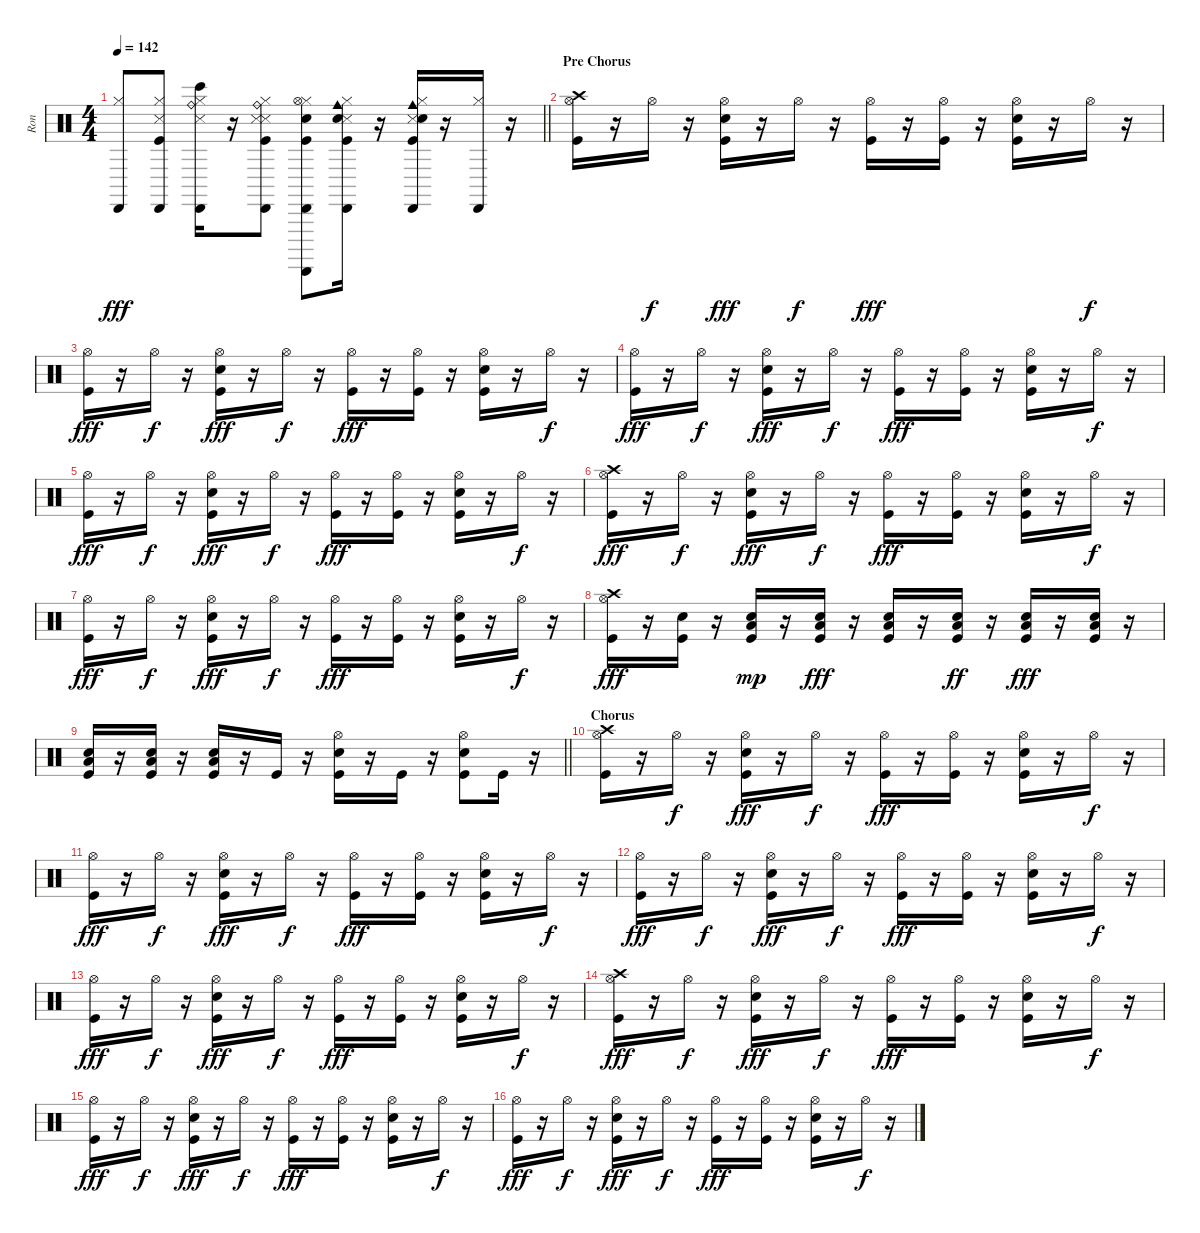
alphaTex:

\track ("Ron" "Ron") {instrument percussion}
\staff {score}
\articulation defaults
\ts (4 4)
\tempo 142
\clef neutral
\barLineRight lightlight
\ks c
("Hi-Hat (closed)" "Cabasa (hit)").8{dy fff} ("Hi-Hat (closed)" "Cabasa (hit)" "Kick (hit)" "Metronome (hit)").8 ("Hi-Hat (closed)" "Cabasa (hit)" "Bongo High (hit)" "Ride (bell)" "Snare (side stick) 3").16 r.16 ("Hi-Hat (closed)" "Cabasa (hit)" "Ride (bell)" "Snare (side stick) 3" "Kick (hit)" "Metronome (hit)").8 ("Guiro (scrap-return)" "Hi-Hat (closed)" "Cabasa (hit)" "Snare (hit) 2" "Kick (hit)" "Hi-Hat (open)").8 ("Hi-Hat (closed)" "Cabasa (hit)" "Cowbell medium (hit)" "Snare (side stick) 3" "Snare (hit) 2" "Kick (hit)").16 r.16 ("Hi-Hat (closed)" "Cabasa (hit)" "Cowbell medium (hit)" "Snare (side stick) 3" "Snare (hit) 2" "Kick (hit)").16 r.16 ("Hi-Hat (closed)" "Cabasa (hit)").16 r.16 |
\section ("" "Pre Chorus")
("Crash high (hit)" "Hi-Hat (open)" "Kick (hit)").16 r.16 "Hi-Hat (open)".16{dy f} r.16 ("Snare (hit) 2" "Kick (hit)" "Hi-Hat (open)").16{dy fff} r.16 "Hi-Hat (open)".16{dy f} r.16 ("Kick (hit)" "Hi-Hat (open)").16{dy fff} r.16 ("Kick (hit)" "Hi-Hat (open)").16 r.16 ("Kick (hit)" "Snare (hit) 2" "Hi-Hat (open)").16 r.16 "Hi-Hat (open)".16{dy f} r.16 |
("Kick (hit)" "Hi-Hat (open)").16{dy fff} r.16 "Hi-Hat (open)".16{dy f} r.16 ("Snare (hit) 2" "Kick (hit)" "Hi-Hat (open)").16{dy fff} r.16 "Hi-Hat (open)".16{dy f} r.16 ("Kick (hit)" "Hi-Hat (open)").16{dy fff} r.16 ("Kick (hit)" "Hi-Hat (open)").16 r.16 ("Kick (hit)" "Snare (hit) 2" "Hi-Hat (open)").16 r.16 "Hi-Hat (open)".16{dy f} r.16 |
("Kick (hit)" "Hi-Hat (open)").16{dy fff} r.16 "Hi-Hat (open)".16{dy f} r.16 ("Snare (hit) 2" "Kick (hit)" "Hi-Hat (open)").16{dy fff} r.16 "Hi-Hat (open)".16{dy f} r.16 ("Kick (hit)" "Hi-Hat (open)").16{dy fff} r.16 ("Kick (hit)" "Hi-Hat (open)").16 r.16 ("Kick (hit)" "Snare (hit) 2" "Hi-Hat (open)").16 r.16 "Hi-Hat (open)".16{dy f} r.16 |
("Kick (hit)" "Hi-Hat (open)").16{dy fff} r.16 "Hi-Hat (open)".16{dy f} r.16 ("Snare (hit) 2" "Kick (hit)" "Hi-Hat (open)").16{dy fff} r.16 "Hi-Hat (open)".16{dy f} r.16 ("Kick (hit)" "Hi-Hat (open)").16{dy fff} r.16 ("Kick (hit)" "Hi-Hat (open)").16 r.16 ("Kick (hit)" "Snare (hit) 2" "Hi-Hat (open)").16 r.16 "Hi-Hat (open)".16{dy f} r.16 |
("Crash high (hit)" "Hi-Hat (open)" "Kick (hit)").16{dy fff} r.16 "Hi-Hat (open)".16{dy f} r.16 ("Snare (hit) 2" "Kick (hit)" "Hi-Hat (open)").16{dy fff} r.16 "Hi-Hat (open)".16{dy f} r.16 ("Kick (hit)" "Hi-Hat (open)").16{dy fff} r.16 ("Kick (hit)" "Hi-Hat (open)").16 r.16 ("Kick (hit)" "Snare (hit) 2" "Hi-Hat (open)").16 r.16 "Hi-Hat (open)".16{dy f} r.16 |
("Kick (hit)" "Hi-Hat (open)").16{dy fff} r.16 "Hi-Hat (open)".16{dy f} r.16 ("Snare (hit) 2" "Kick (hit)" "Hi-Hat (open)").16{dy fff} r.16 "Hi-Hat (open)".16{dy f} r.16 ("Kick (hit)" "Hi-Hat (open)").16{dy fff} r.16 ("Kick (hit)" "Hi-Hat (open)").16 r.16 ("Kick (hit)" "Snare (hit) 2" "Hi-Hat (open)").16 r.16 "Hi-Hat (open)".16{dy f} r.16 |
("Hi-Hat (open)" "Crash high (hit)" "Kick (hit)").16{dy fff} r.16 ("Snare (hit) 2" "Kick (hit)").16 r.16 ("Snare (hit) 2" "Kick (hit)" "Low Floor Tom (hit)").16{dy mp} r.16 ("Snare (hit) 2" "Kick (hit)" "Low Floor Tom (hit)").16{dy fff} r.16 ("Snare (hit) 2" "Kick (hit)" "Low Floor Tom (hit)").16 r.16 ("Snare (hit) 2" "Kick (hit)" "Low Floor Tom (hit)").16{dy ff} r.16 ("Snare (hit) 2" "Kick (hit)" "Low Floor Tom (hit)").16{dy fff} r.16 ("Snare (hit) 2" "Kick (hit)" "Low Floor Tom (hit)").16 r.16 |
\barLineRight lightlight
("Snare (hit) 2" "Kick (hit)" "Low Floor Tom (hit)").16 r.16 ("Snare (hit) 2" "Kick (hit)" "Low Floor Tom (hit)").16 r.16 ("Snare (hit) 2" "Kick (hit)" "Low Floor Tom (hit)").16 r.16 "Kick (hit)".16 r.16 ("Snare (hit) 2" "Kick (hit)" "Hi-Hat (open)").16 r.16 "Kick (hit)".16 r.16 ("Snare (hit) 2" "Kick (hit)" "Hi-Hat (open)").8 "Kick (hit)".16 r.16 |
\section ("" "Chorus ")
("Kick (hit)" "Hi-Hat (open)" "Crash high (hit)").16 r.16 "Hi-Hat (open)".16{dy f} r.16 ("Snare (hit) 2" "Kick (hit)" "Hi-Hat (open)").16{dy fff} r.16 "Hi-Hat (open)".16{dy f} r.16 ("Kick (hit)" "Hi-Hat (open)").16{dy fff} r.16 ("Kick (hit)" "Hi-Hat (open)").16 r.16 ("Kick (hit)" "Snare (hit) 2" "Hi-Hat (open)").16 r.16 "Hi-Hat (open)".16{dy f} r.16 |
("Kick (hit)" "Hi-Hat (open)").16{dy fff} r.16 "Hi-Hat (open)".16{dy f} r.16 ("Snare (hit) 2" "Kick (hit)" "Hi-Hat (open)").16{dy fff} r.16 "Hi-Hat (open)".16{dy f} r.16 ("Kick (hit)" "Hi-Hat (open)").16{dy fff} r.16 ("Kick (hit)" "Hi-Hat (open)").16 r.16 ("Kick (hit)" "Snare (hit) 2" "Hi-Hat (open)").16 r.16 "Hi-Hat (open)".16{dy f} r.16 |
("Hi-Hat (open)" "Kick (hit)").16{dy fff} r.16 "Hi-Hat (open)".16{dy f} r.16 ("Snare (hit) 2" "Kick (hit)" "Hi-Hat (open)").16{dy fff} r.16 "Hi-Hat (open)".16{dy f} r.16 ("Kick (hit)" "Hi-Hat (open)").16{dy fff} r.16 ("Kick (hit)" "Hi-Hat (open)").16 r.16 ("Kick (hit)" "Snare (hit) 2" "Hi-Hat (open)").16 r.16 "Hi-Hat (open)".16{dy f} r.16 |
("Hi-Hat (open)" "Kick (hit)").16{dy fff} r.16 "Hi-Hat (open)".16{dy f} r.16 ("Snare (hit) 2" "Kick (hit)" "Hi-Hat (open)").16{dy fff} r.16 "Hi-Hat (open)".16{dy f} r.16 ("Kick (hit)" "Hi-Hat (open)").16{dy fff} r.16 ("Kick (hit)" "Hi-Hat (open)").16 r.16 ("Kick (hit)" "Snare (hit) 2" "Hi-Hat (open)").16 r.16 "Hi-Hat (open)".16{dy f} r.16 |
("Hi-Hat (open)" "Kick (hit)" "Crash high (hit)").16{dy fff} r.16 "Hi-Hat (open)".16{dy f} r.16 ("Snare (hit) 2" "Kick (hit)" "Hi-Hat (open)").16{dy fff} r.16 "Hi-Hat (open)".16{dy f} r.16 ("Kick (hit)" "Hi-Hat (open)").16{dy fff} r.16 ("Kick (hit)" "Hi-Hat (open)").16 r.16 ("Kick (hit)" "Snare (hit) 2" "Hi-Hat (open)").16 r.16 "Hi-Hat (open)".16{dy f} r.16 |
("Hi-Hat (open)" "Kick (hit)").16{dy fff} r.16 "Hi-Hat (open)".16{dy f} r.16 ("Snare (hit) 2" "Kick (hit)" "Hi-Hat (open)").16{dy fff} r.16 "Hi-Hat (open)".16{dy f} r.16 ("Kick (hit)" "Hi-Hat (open)").16{dy fff} r.16 ("Kick (hit)" "Hi-Hat (open)").16 r.16 ("Kick (hit)" "Snare (hit) 2" "Hi-Hat (open)").16 r.16 "Hi-Hat (open)".16{dy f} r.16 |
("Hi-Hat (open)" "Kick (hit)").16{dy fff} r.16 "Hi-Hat (open)".16{dy f} r.16 ("Snare (hit) 2" "Kick (hit)" "Hi-Hat (open)").16{dy fff} r.16 "Hi-Hat (open)".16{dy f} r.16 ("Kick (hit)" "Hi-Hat (open)").16{dy fff} r.16 ("Kick (hit)" "Hi-Hat (open)").16 r.16 ("Kick (hit)" "Snare (hit) 2" "Hi-Hat (open)").16 r.16 "Hi-Hat (open)".16{dy f} r.16
